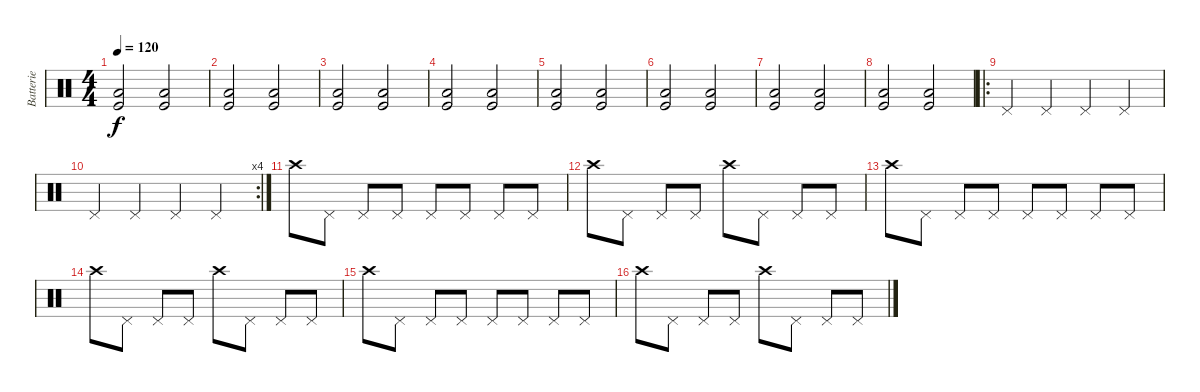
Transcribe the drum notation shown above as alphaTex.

\track ("Batterie" "Batterie") {instrument percussion}
\staff {score}
\articulation defaults
\ts (4 4)
\tempo 120
\clef neutral
\ks c
("Low Tom (hit)" "Kick (hit)").2{dy f} ("Low Tom (hit)" "Kick (hit)").2 |
("Low Tom (hit)" "Kick (hit)").2 ("Low Tom (hit)" "Kick (hit)").2 |
("Low Tom (hit)" "Kick (hit)").2 ("Low Tom (hit)" "Kick (hit)").2 |
("Low Tom (hit)" "Kick (hit)").2 ("Low Tom (hit)" "Kick (hit)").2 |
("Low Tom (hit)" "Kick (hit)").2 ("Low Tom (hit)" "Kick (hit)").2 |
("Low Tom (hit)" "Kick (hit)").2 ("Low Tom (hit)" "Kick (hit)").2 |
("Low Tom (hit)" "Kick (hit)").2 ("Low Tom (hit)" "Kick (hit)").2 |
("Low Tom (hit)" "Kick (hit)").2 ("Low Tom (hit)" "Kick (hit)").2 |
\ro "Pedal Hi-Hat (hit)".4 "Pedal Hi-Hat (hit)".4 "Pedal Hi-Hat (hit)".4 "Pedal Hi-Hat (hit)".4
|
\rc 4 "Pedal Hi-Hat (hit)".4 "Pedal Hi-Hat (hit)".4 "Pedal Hi-Hat (hit)".4 "Pedal Hi-Hat (hit)".4
|
"Crash high (hit)".8 "Pedal Hi-Hat (hit)".8 "Pedal Hi-Hat (hit)".8 "Pedal Hi-Hat (hit)".8 "Pedal Hi-Hat (hit)".8 "Pedal Hi-Hat (hit)".8 "Pedal Hi-Hat (hit)".8 "Pedal Hi-Hat (hit)".8 |
"Crash high (hit)".8 "Pedal Hi-Hat (hit)".8 "Pedal Hi-Hat (hit)".8 "Pedal Hi-Hat (hit)".8 "Crash high (hit)".8 "Pedal Hi-Hat (hit)".8 "Pedal Hi-Hat (hit)".8 "Pedal Hi-Hat (hit)".8 |
"Crash high (hit)".8 "Pedal Hi-Hat (hit)".8 "Pedal Hi-Hat (hit)".8 "Pedal Hi-Hat (hit)".8 "Pedal Hi-Hat (hit)".8 "Pedal Hi-Hat (hit)".8 "Pedal Hi-Hat (hit)".8 "Pedal Hi-Hat (hit)".8 |
"Crash high (hit)".8 "Pedal Hi-Hat (hit)".8 "Pedal Hi-Hat (hit)".8 "Pedal Hi-Hat (hit)".8 "Crash high (hit)".8 "Pedal Hi-Hat (hit)".8 "Pedal Hi-Hat (hit)".8 "Pedal Hi-Hat (hit)".8 |
"Crash high (hit)".8 "Pedal Hi-Hat (hit)".8 "Pedal Hi-Hat (hit)".8 "Pedal Hi-Hat (hit)".8 "Pedal Hi-Hat (hit)".8 "Pedal Hi-Hat (hit)".8 "Pedal Hi-Hat (hit)".8 "Pedal Hi-Hat (hit)".8 |
"Crash high (hit)".8 "Pedal Hi-Hat (hit)".8 "Pedal Hi-Hat (hit)".8 "Pedal Hi-Hat (hit)".8 "Crash high (hit)".8 "Pedal Hi-Hat (hit)".8 "Pedal Hi-Hat (hit)".8 "Pedal Hi-Hat (hit)".8
